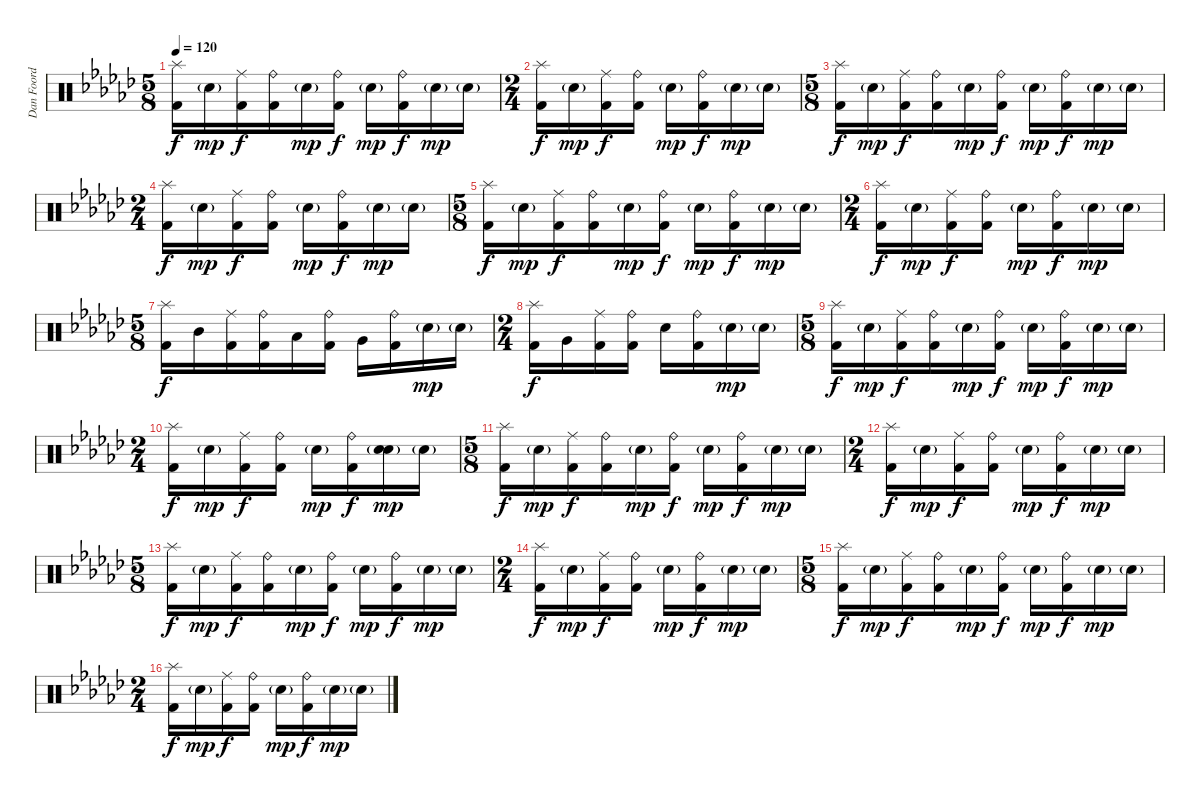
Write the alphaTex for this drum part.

\track ("Dan Foord 2" "Dan Foord ") {instrument percussion}
\staff {score}
\articulation defaults
\ts (5 8)
\tempo 120
\clef neutral
\ks gb
("Splash (hit)" "Kick (hit) 2").16{dy f} "Snare (hit) 2"{g}.16{dy mp} ("Ride (middle)" "Kick (hit) 2").16{dy f} ("Ride (bell)" "Kick (hit) 2").16 "Snare (hit) 2"{g}.16{dy mp} ("Ride (bell)" "Kick (hit) 2").16{dy f} "Snare (hit) 2"{g}.16{dy mp} ("Ride (bell)" "Kick (hit) 2").16{dy f} "Snare (hit) 2"{g}.16{dy mp} "Snare (hit) 2"{g}.16 |
\ts (2 4)
("Splash (hit)" "Kick (hit) 2").16{dy f} "Snare (hit) 2"{g}.16{dy mp} ("Ride (middle)" "Kick (hit) 2").16{dy f} ("Ride (bell)" "Kick (hit) 2").16 "Snare (hit) 2"{g}.16{dy mp} ("Ride (bell)" "Kick (hit) 2").16{dy f} "Snare (hit) 2"{g}.16{dy mp} "Snare (hit) 2"{g}.16 |
\ts (5 8)
("Splash (hit)" "Kick (hit) 2").16{dy f} "Snare (hit) 2"{g}.16{dy mp} ("Ride (middle)" "Kick (hit) 2").16{dy f} ("Ride (bell)" "Kick (hit) 2").16 "Snare (hit) 2"{g}.16{dy mp} ("Ride (bell)" "Kick (hit) 2").16{dy f} "Snare (hit) 2"{g}.16{dy mp} ("Ride (bell)" "Kick (hit) 2").16{dy f} "Snare (hit) 2"{g}.16{dy mp} "Snare (hit) 2"{g}.16 |
\ts (2 4)
("Splash (hit)" "Kick (hit) 2").16{dy f} "Snare (hit) 2"{g}.16{dy mp} ("Ride (middle)" "Kick (hit) 2").16{dy f} ("Ride (bell)" "Kick (hit) 2").16 "Snare (hit) 2"{g}.16{dy mp} ("Ride (bell)" "Kick (hit) 2").16{dy f} "Snare (hit) 2"{g}.16{dy mp} "Snare (hit) 2"{g}.16 |
\ts (5 8)
("Splash (hit)" "Kick (hit) 2").16{dy f} "Snare (hit) 2"{g}.16{dy mp} ("Ride (middle)" "Kick (hit) 2").16{dy f} ("Ride (bell)" "Kick (hit) 2").16 "Snare (hit) 2"{g}.16{dy mp} ("Ride (bell)" "Kick (hit) 2").16{dy f} "Snare (hit) 2"{g}.16{dy mp} ("Ride (bell)" "Kick (hit) 2").16{dy f} "Snare (hit) 2"{g}.16{dy mp} "Snare (hit) 2"{g}.16 |
\ts (2 4)
("Splash (hit)" "Kick (hit) 2").16{dy f} "Snare (hit) 2"{g}.16{dy mp} ("Ride (middle)" "Kick (hit) 2").16{dy f} ("Ride (bell)" "Kick (hit) 2").16 "Snare (hit) 2"{g}.16{dy mp} ("Ride (bell)" "Kick (hit) 2").16{dy f} "Snare (hit) 2"{g}.16{dy mp} "Snare (hit) 2"{g}.16 |
\ts (5 8)
("Splash (hit)" "Kick (hit) 2").16{dy f} "Mid Tom (hit)".16 ("Ride (middle)" "Kick (hit) 2").16 ("Ride (bell)" "Kick (hit) 2").16 "Low Tom (hit)".16 ("Ride (bell)" "Kick (hit) 2").16 "Very Low Tom (hit)".16 ("Ride (bell)" "Kick (hit) 2").16 "Snare (hit) 2"{g}.16{dy mp} "Snare (hit) 2"{g}.16 |
\ts (2 4)
("Splash (hit)" "Kick (hit) 2").16{dy f} "Very Low Tom (hit)".16 ("Ride (middle)" "Kick (hit) 2").16 ("Ride (bell)" "Kick (hit) 2").16 "Snare (hit) 2".16 ("Ride (bell)" "Kick (hit) 2").16 "Snare (hit) 2"{g}.16{dy mp} "Snare (hit) 2"{g}.16 |
\ts (5 8)
("Splash (hit)" "Kick (hit) 2").16{dy f} "Snare (hit) 2"{g}.16{dy mp} ("Ride (middle)" "Kick (hit) 2").16{dy f} ("Ride (bell)" "Kick (hit) 2").16 "Snare (hit) 2"{g}.16{dy mp} ("Ride (bell)" "Kick (hit) 2").16{dy f} "Snare (hit) 2"{g}.16{dy mp} ("Ride (bell)" "Kick (hit) 2").16{dy f} "Snare (hit) 2"{g}.16{dy mp} "Snare (hit) 2"{g}.16 |
\ts (2 4)
("Splash (hit)" "Kick (hit) 2").16{dy f} "Snare (hit) 2"{g}.16{dy mp} ("Ride (middle)" "Kick (hit) 2").16{dy f} ("Ride (bell)" "Kick (hit) 2").16 "Snare (hit) 2"{g}.16{dy mp} ("Ride (bell)" "Kick (hit) 2").16{dy f} ("Snare (hit)" "Snare (hit) 2"{g}).16{dy mp} "Snare (hit) 2"{g}.16 |
\ts (5 8)
("Splash (hit)" "Kick (hit) 2").16{dy f} "Snare (hit) 2"{g}.16{dy mp} ("Ride (middle)" "Kick (hit) 2").16{dy f} ("Ride (bell)" "Kick (hit) 2").16 "Snare (hit) 2"{g}.16{dy mp} ("Ride (bell)" "Kick (hit) 2").16{dy f} "Snare (hit) 2"{g}.16{dy mp} ("Ride (bell)" "Kick (hit) 2").16{dy f} "Snare (hit) 2"{g}.16{dy mp} "Snare (hit) 2"{g}.16 |
\ts (2 4)
("Splash (hit)" "Kick (hit) 2").16{dy f} "Snare (hit) 2"{g}.16{dy mp} ("Ride (middle)" "Kick (hit) 2").16{dy f} ("Ride (bell)" "Kick (hit) 2").16 "Snare (hit) 2"{g}.16{dy mp} ("Ride (bell)" "Kick (hit) 2").16{dy f} "Snare (hit) 2"{g}.16{dy mp} "Snare (hit) 2"{g}.16 |
\ts (5 8)
("Splash (hit)" "Kick (hit) 2").16{dy f} "Snare (hit) 2"{g}.16{dy mp} ("Ride (middle)" "Kick (hit) 2").16{dy f} ("Ride (bell)" "Kick (hit) 2").16 "Snare (hit) 2"{g}.16{dy mp} ("Ride (bell)" "Kick (hit) 2").16{dy f} "Snare (hit) 2"{g}.16{dy mp} ("Ride (bell)" "Kick (hit) 2").16{dy f} "Snare (hit) 2"{g}.16{dy mp} "Snare (hit) 2"{g}.16 |
\ts (2 4)
("Splash (hit)" "Kick (hit) 2").16{dy f} "Snare (hit) 2"{g}.16{dy mp} ("Ride (middle)" "Kick (hit) 2").16{dy f} ("Ride (bell)" "Kick (hit) 2").16 "Snare (hit) 2"{g}.16{dy mp} ("Ride (bell)" "Kick (hit) 2").16{dy f} "Snare (hit) 2"{g}.16{dy mp} "Snare (hit) 2"{g}.16 |
\ts (5 8)
("Splash (hit)" "Kick (hit) 2").16{dy f} "Snare (hit) 2"{g}.16{dy mp} ("Ride (middle)" "Kick (hit) 2").16{dy f} ("Ride (bell)" "Kick (hit) 2").16 "Snare (hit) 2"{g}.16{dy mp} ("Ride (bell)" "Kick (hit) 2").16{dy f} "Snare (hit) 2"{g}.16{dy mp} ("Ride (bell)" "Kick (hit) 2").16{dy f} "Snare (hit) 2"{g}.16{dy mp} "Snare (hit) 2"{g}.16 |
\ts (2 4)
("Splash (hit)" "Kick (hit) 2").16{dy f} "Snare (hit) 2"{g}.16{dy mp} ("Ride (middle)" "Kick (hit) 2").16{dy f} ("Ride (bell)" "Kick (hit) 2").16 "Snare (hit) 2"{g}.16{dy mp} ("Ride (bell)" "Kick (hit) 2").16{dy f} "Snare (hit) 2"{g}.16{dy mp} "Snare (hit) 2"{g}.16
